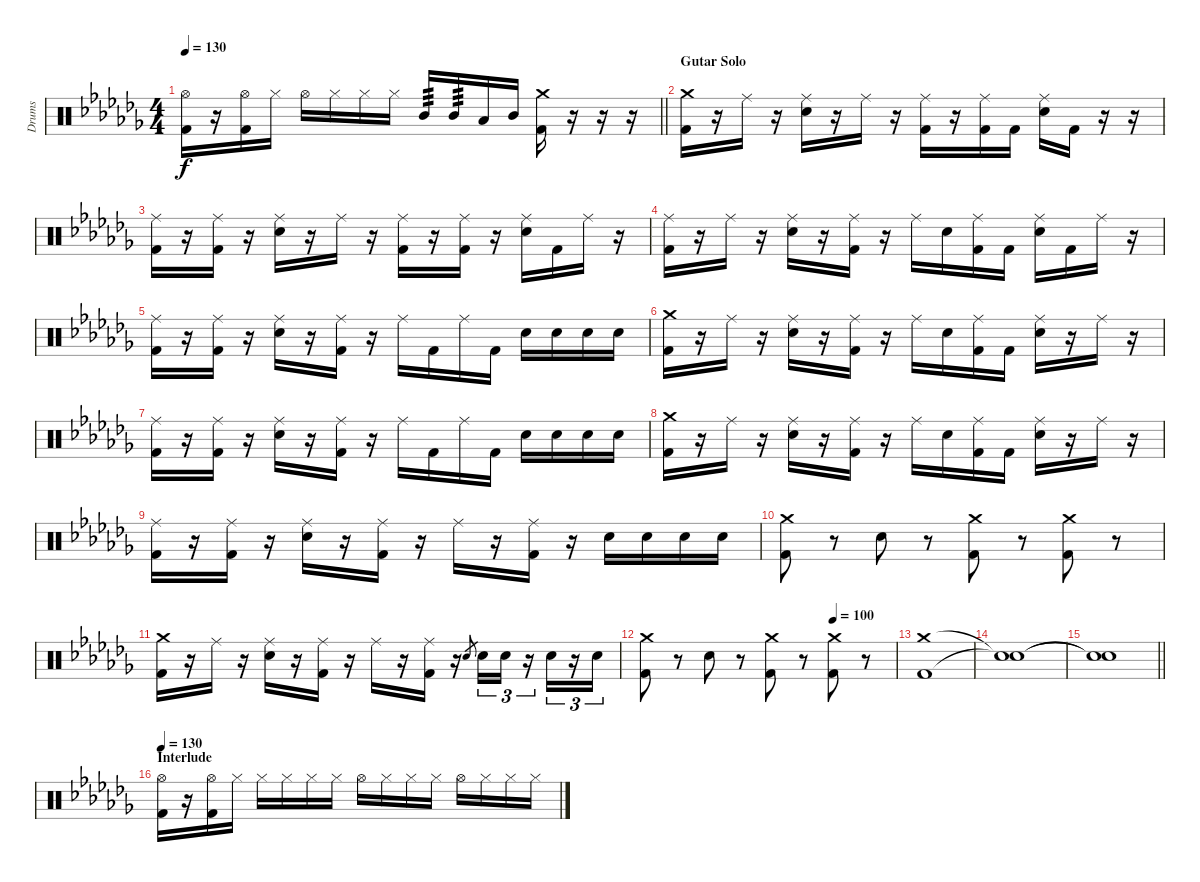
\track ("Drums" "Drums") {instrument percussion}
\staff {score}
\articulation defaults
\ts (4 4)
\tempo 130
\clef neutral
\barLineRight lightlight
\ks cb
("Hi-Hat (open)" "Kick (hit) 2").16{dy f} r.16 ("Hi-Hat (open)" "Kick (hit) 2").16 "Hi-Hat (closed)".16 "Hi-Hat (open)".16 "Hi-Hat (closed)".16 "Hi-Hat (closed)".16 "Hi-Hat (closed)".16 "Mid Tom (hit)".16{tp 3} "Mid Tom (hit)".16{tp 3} "Low Tom (hit)".16 "Mid Tom (hit)".16 ("Crash medium (hit)" "Kick (hit) 2").16 r.16 r.16 r.16 |
\section ("" "Gutar Solo")
("Crash medium (hit)" "Kick (hit) 2").16 r.16 "Ride (middle)".16 r.16 ("Ride (middle)" "Snare (hit) 2").16 r.16 "Ride (middle)".16 r.16 ("Ride (middle)" "Kick (hit) 2").16 r.16 ("Ride (middle)" "Kick (hit) 2").16 "Kick (hit) 2".16 ("Ride (middle)" "Snare (hit) 2").16 "Kick (hit) 2".16 r.16 r.16 |
("Ride (middle)" "Kick (hit) 2").16 r.16 ("Ride (middle)" "Kick (hit) 2").16 r.16 ("Ride (middle)" "Snare (hit) 2").16 r.16 "Ride (middle)".16 r.16 ("Ride (middle)" "Kick (hit) 2").16 r.16 ("Ride (middle)" "Kick (hit) 2").16 r.16 ("Ride (middle)" "Snare (hit) 2").16 "Kick (hit) 2".16 "Ride (middle)".16 r.16 |
("Ride (middle)" "Kick (hit) 2").16 r.16 "Ride (middle)".16 r.16 ("Ride (middle)" "Snare (hit) 2").16 r.16 ("Ride (middle)" "Kick (hit) 2").16 r.16 "Ride (middle)".16 "Snare (hit) 2".16 ("Ride (middle)" "Kick (hit) 2").16 "Kick (hit) 2".16 ("Ride (middle)" "Snare (hit) 2").16 "Kick (hit) 2".16 "Ride (middle)".16 r.16 |
("Ride (middle)" "Kick (hit) 2").16 r.16 ("Ride (middle)" "Kick (hit) 2").16 r.16 ("Ride (middle)" "Snare (hit) 2").16 r.16 ("Ride (middle)" "Kick (hit) 2").16 r.16 "Ride (middle)".16 "Kick (hit) 2".16 "Ride (middle)".16 "Kick (hit) 2".16 "Snare (hit) 2".16 "Snare (hit) 2".16 "Snare (hit) 2".16 "Snare (hit) 2".16 |
("Crash medium (hit)" "Kick (hit) 2").16 r.16 "Ride (middle)".16 r.16 ("Ride (middle)" "Snare (hit) 2").16 r.16 ("Ride (middle)" "Kick (hit) 2").16 r.16 "Ride (middle)".16 "Snare (hit) 2".16 ("Ride (middle)" "Kick (hit) 2").16 "Kick (hit) 2".16 ("Ride (middle)" "Snare (hit) 2").16 r.16 "Ride (middle)".16 r.16 |
("Ride (middle)" "Kick (hit) 2").16 r.16 ("Ride (middle)" "Kick (hit) 2").16 r.16 ("Ride (middle)" "Snare (hit) 2").16 r.16 ("Ride (middle)" "Kick (hit) 2").16 r.16 "Ride (middle)".16 "Kick (hit) 2".16 "Ride (middle)".16 "Kick (hit) 2".16 "Snare (hit) 2".16 "Snare (hit) 2".16 "Snare (hit) 2".16 "Snare (hit) 2".16 |
("Crash medium (hit)" "Kick (hit) 2").16 r.16 "Ride (middle)".16 r.16 ("Ride (middle)" "Snare (hit) 2").16 r.16 ("Ride (middle)" "Kick (hit) 2").16 r.16 "Ride (middle)".16 "Snare (hit) 2".16 ("Ride (middle)" "Kick (hit) 2").16 "Kick (hit) 2".16 ("Ride (middle)" "Snare (hit) 2").16 r.16 "Ride (middle)".16 r.16 |
("Ride (middle)" "Kick (hit) 2").16 r.16 ("Ride (middle)" "Kick (hit) 2").16 r.16 ("Ride (middle)" "Snare (hit) 2").16 r.16 ("Ride (middle)" "Kick (hit) 2").16 r.16 "Ride (middle)".16 r.16 ("Ride (middle)" "Kick (hit) 2").16 r.16 "Snare (hit) 2".16 "Snare (hit) 2".16 "Snare (hit) 2".16 "Snare (hit) 2".16 |
("Crash medium (hit)" "Kick (hit) 2").8 r.8 "Snare (hit) 2".8 r.8 ("Crash medium (hit)" "Kick (hit) 2").8 r.8 ("Crash medium (hit)" "Kick (hit) 2").8 r.8 |
("Crash medium (hit)" "Kick (hit) 2").16 r.16 "Ride (middle)".16 r.16 ("Ride (middle)" "Snare (hit) 2").16 r.16 ("Ride (middle)" "Kick (hit) 2").16 r.16 "Ride (middle)".16 r.16 ("Ride (middle)" "Kick (hit) 2").16 r.16 "Snare (hit) 2".8{gr} "Snare (hit) 2".16{tu (3 2)} "Snare (hit) 2".16{tu (3 2)} r.16{tu (3 2)} "Snare (hit) 2".16{tu (3 2)} r.16{tu (3 2)} "Snare (hit) 2".16{tu (3 2)} |
\tempo (100 0.75)
("Crash medium (hit)" "Kick (hit) 2").8 r.8 "Snare (hit) 2".8 r.8 ("Crash medium (hit)" "Kick (hit) 2").8 r.8 ("Crash medium (hit)" "Kick (hit) 2").8 r.8 |
("Crash medium (hit)" "Kick (hit) 2").1 |
("Snare (hit)"{t} "Snare (hit)"{t}).1 |
\barLineRight lightlight
("Snare (hit)"{t} "Snare (hit)"{t}).1 |
\section ("" "Interlude")
\tempo 130
("Hi-Hat (open)" "Kick (hit) 2").16 r.16 ("Hi-Hat (open)" "Kick (hit) 2").16 "Hi-Hat (closed)".16 "Hi-Hat (closed)".16 "Hi-Hat (closed)".16 "Hi-Hat (closed)".16 "Hi-Hat (closed)".16 "Hi-Hat (open)".16 "Hi-Hat (closed)".16 "Hi-Hat (closed)".16 "Hi-Hat (closed)".16 "Hi-Hat (open)".16 "Hi-Hat (closed)".16 "Hi-Hat (closed)".16 "Hi-Hat (closed)".16
